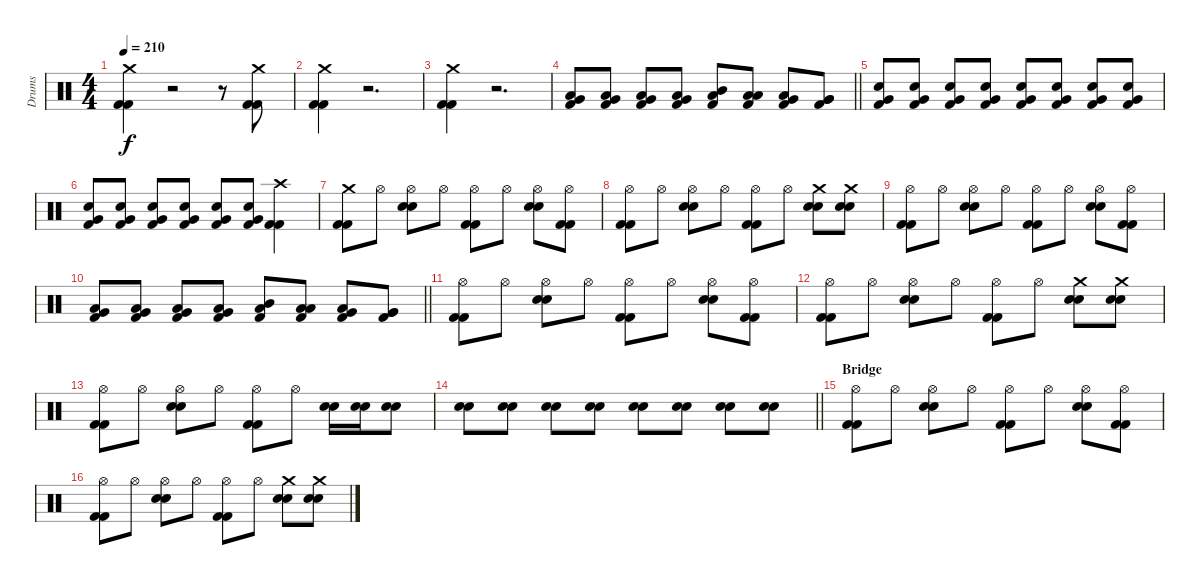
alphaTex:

\track ("Drums" "Drums") {instrument percussion}
\staff {score}
\articulation defaults
\ts (4 4)
\tempo 210
\clef neutral
\ks c
("Crash medium (hit)" "Kick (hit) 2" "Kick (hit) 2").4{dy f} r.2 r.8 ("Crash medium (hit)" "Kick (hit) 2" "Kick (hit) 2").8 |
("Crash medium (hit)" "Kick (hit) 2" "Kick (hit) 2").4 r.2{d} |
("Crash medium (hit)" "Kick (hit) 2" "Kick (hit) 2").4 r.2{d} |
\barLineRight lightlight
("Low Tom (hit)" "Very Low Tom (hit)" "Kick (hit) 2").8 ("Low Tom (hit)" "Very Low Tom (hit)" "Kick (hit) 2").8 ("Low Tom (hit)" "Very Low Tom (hit)" "Kick (hit) 2").8 ("Low Tom (hit)" "Very Low Tom (hit)" "Kick (hit) 2").8 ("Mid Tom (hit)" "Low Tom (hit)" "Kick (hit) 2").8 ("Low Tom (hit)" "Low Tom (hit)" "Kick (hit) 2").8 ("Very Low Tom (hit)" "Low Tom (hit)" "Kick (hit) 2").8 ("Very Low Tom (hit)" "Very Low Tom (hit)" "Kick (hit) 2").8 |
("Very Low Tom (hit)" "Snare (hit) 2" "Kick (hit) 2").8 ("Very Low Tom (hit)" "Snare (hit) 2" "Kick (hit) 2").8 ("Very Low Tom (hit)" "Snare (hit) 2" "Kick (hit) 2").8 ("Very Low Tom (hit)" "Snare (hit) 2" "Kick (hit) 2").8 ("Very Low Tom (hit)" "Snare (hit) 2" "Kick (hit) 2").8 ("Very Low Tom (hit)" "Snare (hit) 2" "Kick (hit) 2").8 ("Very Low Tom (hit)" "Snare (hit) 2" "Kick (hit) 2").8 ("Very Low Tom (hit)" "Snare (hit) 2" "Kick (hit) 2").8 |
("Very Low Tom (hit)" "Snare (hit) 2" "Kick (hit) 2").8 ("Very Low Tom (hit)" "Snare (hit) 2" "Kick (hit) 2").8 ("Very Low Tom (hit)" "Snare (hit) 2" "Kick (hit) 2").8 ("Very Low Tom (hit)" "Snare (hit) 2" "Kick (hit) 2").8 ("Very Low Tom (hit)" "Snare (hit) 2" "Kick (hit) 2").8 ("Very Low Tom (hit)" "Snare (hit) 2" "Kick (hit) 2").8 ("Crash high (hit)" "Kick (hit) 2" "Kick (hit) 2").4 |
("Crash medium (hit)" "Kick (hit) 2" "Kick (hit) 2").8 "Hi-Hat (open)".8 ("Hi-Hat (open)" "Snare (hit) 2" "Snare (hit) 2").8 "Hi-Hat (open)".8 ("Hi-Hat (open)" "Kick (hit) 2" "Kick (hit) 2").8 "Hi-Hat (open)".8 ("Hi-Hat (open)" "Snare (hit) 2" "Snare (hit) 2").8 ("Hi-Hat (open)" "Kick (hit) 2" "Kick (hit) 2").8 |
("Hi-Hat (open)" "Kick (hit) 2" "Kick (hit) 2").8 "Hi-Hat (open)".8 ("Hi-Hat (open)" "Snare (hit) 2" "Snare (hit) 2").8 "Hi-Hat (open)".8 ("Hi-Hat (open)" "Kick (hit) 2" "Kick (hit) 2").8 "Hi-Hat (open)".8 ("Crash medium (hit)" "Snare (hit) 2" "Snare (hit) 2").8 ("Crash medium (hit)" "Snare (hit) 2" "Snare (hit) 2").8 |
("Hi-Hat (open)" "Kick (hit) 2" "Kick (hit) 2").8 "Hi-Hat (open)".8 ("Hi-Hat (open)" "Snare (hit) 2" "Snare (hit) 2").8 "Hi-Hat (open)".8 ("Hi-Hat (open)" "Kick (hit) 2" "Kick (hit) 2").8 "Hi-Hat (open)".8 ("Hi-Hat (open)" "Snare (hit) 2" "Snare (hit) 2").8 ("Hi-Hat (open)" "Kick (hit) 2" "Kick (hit) 2").8 |
\barLineRight lightlight
("Low Tom (hit)" "Very Low Tom (hit)" "Kick (hit) 2").8 ("Low Tom (hit)" "Very Low Tom (hit)" "Kick (hit) 2").8 ("Low Tom (hit)" "Very Low Tom (hit)" "Kick (hit) 2").8 ("Low Tom (hit)" "Very Low Tom (hit)" "Kick (hit) 2").8 ("Mid Tom (hit)" "Low Tom (hit)" "Kick (hit) 2").8 ("Low Tom (hit)" "Low Tom (hit)" "Kick (hit) 2").8 ("Very Low Tom (hit)" "Low Tom (hit)" "Kick (hit) 2").8 ("Very Low Tom (hit)" "Very Low Tom (hit)" "Kick (hit) 2").8 |
("Hi-Hat (open)" "Kick (hit) 2" "Kick (hit) 2").8 "Hi-Hat (open)".8 ("Hi-Hat (open)" "Snare (hit) 2" "Snare (hit) 2").8 "Hi-Hat (open)".8 ("Hi-Hat (open)" "Kick (hit) 2" "Kick (hit) 2").8 "Hi-Hat (open)".8 ("Hi-Hat (open)" "Snare (hit) 2" "Snare (hit) 2").8 ("Hi-Hat (open)" "Kick (hit) 2" "Kick (hit) 2").8 |
("Hi-Hat (open)" "Kick (hit) 2" "Kick (hit) 2").8 "Hi-Hat (open)".8 ("Hi-Hat (open)" "Snare (hit) 2" "Snare (hit) 2").8 "Hi-Hat (open)".8 ("Hi-Hat (open)" "Kick (hit) 2" "Kick (hit) 2").8 "Hi-Hat (open)".8 ("Crash medium (hit)" "Snare (hit) 2" "Snare (hit) 2").8 ("Crash medium (hit)" "Snare (hit) 2" "Snare (hit) 2").8 |
("Hi-Hat (open)" "Kick (hit) 2" "Kick (hit) 2").8 "Hi-Hat (open)".8 ("Hi-Hat (open)" "Snare (hit) 2" "Snare (hit) 2").8 "Hi-Hat (open)".8 ("Hi-Hat (open)" "Kick (hit) 2" "Kick (hit) 2").8 "Hi-Hat (open)".8 ("Snare (hit) 2" "Snare (hit) 2").16 ("Snare (hit) 2" "Snare (hit) 2").16 ("Snare (hit) 2" "Snare (hit) 2").8 |
\barLineRight lightlight
("Snare (hit) 2" "Snare (hit) 2").8 ("Snare (hit) 2" "Snare (hit) 2").8 ("Snare (hit) 2" "Snare (hit) 2").8 ("Snare (hit) 2" "Snare (hit) 2").8 ("Snare (hit) 2" "Snare (hit) 2").8 ("Snare (hit) 2" "Snare (hit) 2").8 ("Snare (hit) 2" "Snare (hit) 2").8 ("Snare (hit) 2" "Snare (hit) 2").8 |
\section ("" "Bridge")
("Hi-Hat (open)" "Kick (hit) 2" "Kick (hit) 2").8 "Hi-Hat (open)".8 ("Hi-Hat (open)" "Snare (hit) 2" "Snare (hit) 2").8 "Hi-Hat (open)".8 ("Hi-Hat (open)" "Kick (hit) 2" "Kick (hit) 2").8 "Hi-Hat (open)".8 ("Hi-Hat (open)" "Snare (hit) 2" "Snare (hit) 2").8 ("Hi-Hat (open)" "Kick (hit) 2" "Kick (hit) 2").8 |
("Hi-Hat (open)" "Kick (hit) 2" "Kick (hit) 2").8 "Hi-Hat (open)".8 ("Hi-Hat (open)" "Snare (hit) 2" "Snare (hit) 2").8 "Hi-Hat (open)".8 ("Hi-Hat (open)" "Kick (hit) 2" "Kick (hit) 2").8 "Hi-Hat (open)".8 ("Crash medium (hit)" "Snare (hit) 2" "Snare (hit) 2").8 ("Crash medium (hit)" "Snare (hit) 2" "Snare (hit) 2").8
